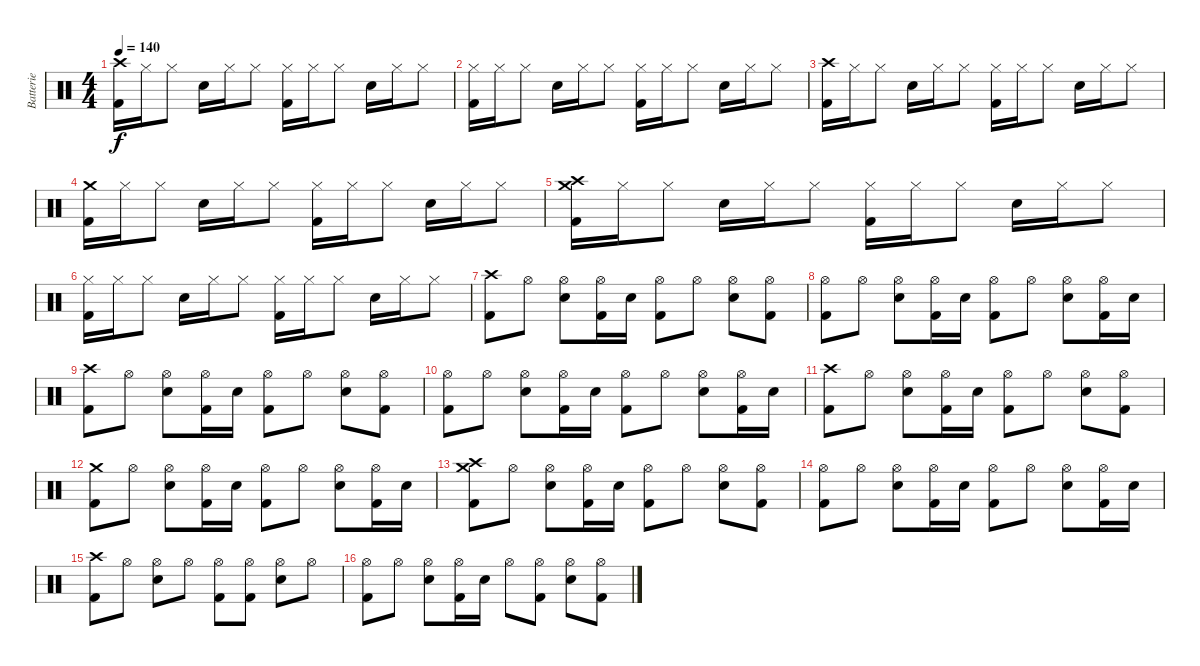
\track ("Batterie" "Batterie") {instrument percussion}
\staff {score}
\articulation defaults
\ts (4 4)
\tempo 140
\clef neutral
\ks c
("Crash high (hit)" "Kick (hit) 2").16{dy f} "Hi-Hat (closed)".16 "Hi-Hat (closed)".8 "Snare (hit) 2".16 "Hi-Hat (closed)".16 "Hi-Hat (closed)".8 ("Hi-Hat (closed)" "Kick (hit) 2").16 "Hi-Hat (closed)".16 "Hi-Hat (closed)".8 "Snare (hit) 2".16 "Hi-Hat (closed)".16 "Hi-Hat (closed)".8 |
("Hi-Hat (closed)" "Kick (hit) 2").16 "Hi-Hat (closed)".16 "Hi-Hat (closed)".8 "Snare (hit) 2".16 "Hi-Hat (closed)".16 "Hi-Hat (closed)".8 ("Hi-Hat (closed)" "Kick (hit) 2").16 "Hi-Hat (closed)".16 "Hi-Hat (closed)".8 "Snare (hit) 2".16 "Hi-Hat (closed)".16 "Hi-Hat (closed)".8 |
("Crash high (hit)" "Kick (hit) 2").16 "Hi-Hat (closed)".16 "Hi-Hat (closed)".8 "Snare (hit) 2".16 "Hi-Hat (closed)".16 "Hi-Hat (closed)".8 ("Hi-Hat (closed)" "Kick (hit) 2").16 "Hi-Hat (closed)".16 "Hi-Hat (closed)".8 "Snare (hit) 2".16 "Hi-Hat (closed)".16 "Hi-Hat (closed)".8 |
("Crash medium (hit)" "Kick (hit) 2").16 "Hi-Hat (closed)".16 "Hi-Hat (closed)".8 "Snare (hit) 2".16 "Hi-Hat (closed)".16 "Hi-Hat (closed)".8 ("Hi-Hat (closed)" "Kick (hit) 2").16 "Hi-Hat (closed)".16 "Hi-Hat (closed)".8 "Snare (hit) 2".16 "Hi-Hat (closed)".16 "Hi-Hat (closed)".8 |
("Crash high (hit)" "Crash medium (hit)" "Kick (hit) 2").16 "Hi-Hat (closed)".16 "Hi-Hat (closed)".8 "Snare (hit) 2".16 "Hi-Hat (closed)".16 "Hi-Hat (closed)".8 ("Hi-Hat (closed)" "Kick (hit) 2").16 "Hi-Hat (closed)".16 "Hi-Hat (closed)".8 "Snare (hit) 2".16 "Hi-Hat (closed)".16 "Hi-Hat (closed)".8 |
("Hi-Hat (closed)" "Kick (hit) 2").16 "Hi-Hat (closed)".16 "Hi-Hat (closed)".8 "Snare (hit) 2".16 "Hi-Hat (closed)".16 "Hi-Hat (closed)".8 ("Hi-Hat (closed)" "Kick (hit) 2").16 "Hi-Hat (closed)".16 "Hi-Hat (closed)".8 "Snare (hit) 2".16 "Hi-Hat (closed)".16 "Hi-Hat (closed)".8 |
("Crash high (hit)" "Kick (hit) 2").8 "Hi-Hat (open)".8 ("Hi-Hat (open)" "Snare (hit) 2").8 ("Hi-Hat (open)" "Kick (hit) 2").16 "Snare (hit) 2".16 ("Hi-Hat (open)" "Kick (hit) 2").8 "Hi-Hat (open)".8 ("Hi-Hat (open)" "Snare (hit) 2").8 ("Hi-Hat (open)" "Kick (hit) 2").8 |
("Hi-Hat (open)" "Kick (hit) 2").8 "Hi-Hat (open)".8 ("Hi-Hat (open)" "Snare (hit) 2").8 ("Hi-Hat (open)" "Kick (hit) 2").16 "Snare (hit) 2".16 ("Hi-Hat (open)" "Kick (hit) 2").8 "Hi-Hat (open)".8 ("Hi-Hat (open)" "Snare (hit) 2").8 ("Hi-Hat (open)" "Kick (hit) 2").16 "Snare (hit) 2".16 |
("Crash high (hit)" "Kick (hit) 2").8 "Hi-Hat (open)".8 ("Hi-Hat (open)" "Snare (hit) 2").8 ("Hi-Hat (open)" "Kick (hit) 2").16 "Snare (hit) 2".16 ("Hi-Hat (open)" "Kick (hit) 2").8 "Hi-Hat (open)".8 ("Hi-Hat (open)" "Snare (hit) 2").8 ("Hi-Hat (open)" "Kick (hit) 2").8 |
("Hi-Hat (open)" "Kick (hit) 2").8 "Hi-Hat (open)".8 ("Hi-Hat (open)" "Snare (hit) 2").8 ("Hi-Hat (open)" "Kick (hit) 2").16 "Snare (hit) 2".16 ("Hi-Hat (open)" "Kick (hit) 2").8 "Hi-Hat (open)".8 ("Hi-Hat (open)" "Snare (hit) 2").8 ("Hi-Hat (open)" "Kick (hit) 2").16 "Snare (hit) 2".16 |
("Crash high (hit)" "Kick (hit) 2").8 "Hi-Hat (open)".8 ("Hi-Hat (open)" "Snare (hit) 2").8 ("Hi-Hat (open)" "Kick (hit) 2").16 "Snare (hit) 2".16 ("Hi-Hat (open)" "Kick (hit) 2").8 "Hi-Hat (open)".8 ("Hi-Hat (open)" "Snare (hit) 2").8 ("Hi-Hat (open)" "Kick (hit) 2").8 |
("Crash medium (hit)" "Kick (hit) 2").8 "Hi-Hat (open)".8 ("Hi-Hat (open)" "Snare (hit) 2").8 ("Hi-Hat (open)" "Kick (hit) 2").16 "Snare (hit) 2".16 ("Hi-Hat (open)" "Kick (hit) 2").8 "Hi-Hat (open)".8 ("Hi-Hat (open)" "Snare (hit) 2").8 ("Hi-Hat (open)" "Kick (hit) 2").16 "Snare (hit) 2".16 |
("Crash high (hit)" "Crash medium (hit)" "Kick (hit) 2").8 "Hi-Hat (open)".8 ("Hi-Hat (open)" "Snare (hit) 2").8 ("Hi-Hat (open)" "Kick (hit) 2").16 "Snare (hit) 2".16 ("Hi-Hat (open)" "Kick (hit) 2").8 "Hi-Hat (open)".8 ("Hi-Hat (open)" "Snare (hit) 2").8 ("Hi-Hat (open)" "Kick (hit) 2").8 |
("Hi-Hat (open)" "Kick (hit) 2").8 "Hi-Hat (open)".8 ("Hi-Hat (open)" "Snare (hit) 2").8 ("Hi-Hat (open)" "Kick (hit) 2").16 "Snare (hit) 2".16 ("Hi-Hat (open)" "Kick (hit) 2").8 "Hi-Hat (open)".8 ("Hi-Hat (open)" "Snare (hit) 2").8 ("Hi-Hat (open)" "Kick (hit) 2").16 "Snare (hit) 2".16 |
("Crash high (hit)" "Kick (hit) 2").8 "Hi-Hat (open)".8 ("Hi-Hat (open)" "Snare (hit) 2").8 "Hi-Hat (open)".8 ("Hi-Hat (open)" "Kick (hit) 2").8 ("Hi-Hat (open)" "Kick (hit) 2").8 ("Hi-Hat (open)" "Snare (hit) 2").8 "Hi-Hat (open)".8 |
("Hi-Hat (open)" "Kick (hit) 2").8 "Hi-Hat (open)".8 ("Hi-Hat (open)" "Snare (hit) 2").8 ("Hi-Hat (open)" "Kick (hit) 2").16 "Snare (hit) 2".16 "Hi-Hat (open)".8 ("Hi-Hat (open)" "Kick (hit) 2").8 ("Hi-Hat (open)" "Snare (hit) 2").8 ("Hi-Hat (open)" "Kick (hit) 2").8
